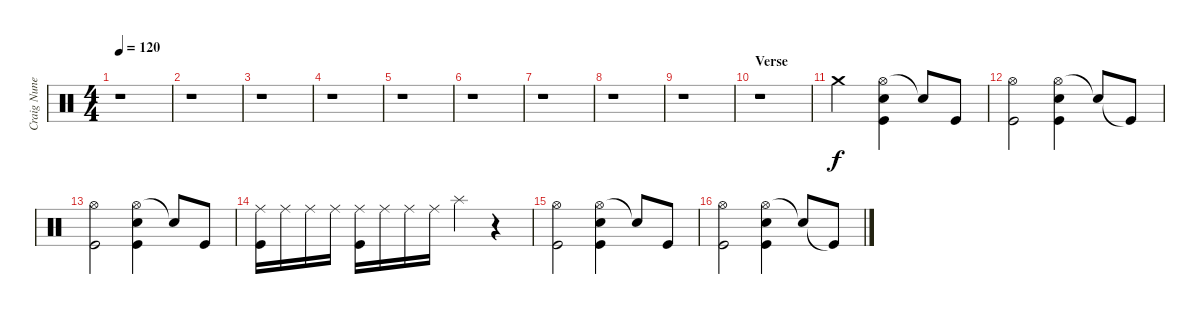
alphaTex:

\track ("Craig Nunenmacher" "Craig Nune") {instrument percussion}
\staff {score}
\articulation defaults
\ts (4 4)
\tempo 120
\clef neutral
\ks c
r.1{dy f} |
r.1 |
r.1 |
r.1 |
r.1 |
r.1 |
r.1 |
r.1 |
r.1 |
\section ("" "Verse")
r.1 |
"Crash medium (hit)".2 ("Hi-Hat (open)" "Snare (hit) 2" "Kick (hit)").4 "Snare (hit)"{t}.8 "Kick (hit)".8 |
("Hi-Hat (open)" "Kick (hit)").2 ("Hi-Hat (open)" "Snare (hit) 2" "Kick (hit)").4 "Snare (hit)"{t}.8 "Kick (hit)"{t}.8 |
("Hi-Hat (open)" "Kick (hit)").2 ("Hi-Hat (open)" "Snare (hit) 2" "Kick (hit)").4 "Snare (hit)"{t}.8 "Kick (hit)".8 |
("Ride (middle)" "Kick (hit)").16 "Ride (middle)".16 "Ride (middle)".16 "Ride (middle)".16 ("Ride (middle)" "Kick (hit)").16 "Ride (middle)".16 "Ride (middle)".16 "Ride (middle)".16 "Splash (hit)".4 r.4 |
("Hi-Hat (open)" "Kick (hit)").2 ("Hi-Hat (open)" "Snare (hit) 2" "Kick (hit)").4 "Snare (hit)"{t}.8 "Kick (hit)".8 |
("Hi-Hat (open)" "Kick (hit)").2 ("Hi-Hat (open)" "Snare (hit) 2" "Kick (hit)").4 "Snare (hit)"{t}.8 "Kick (hit)"{t}.8
